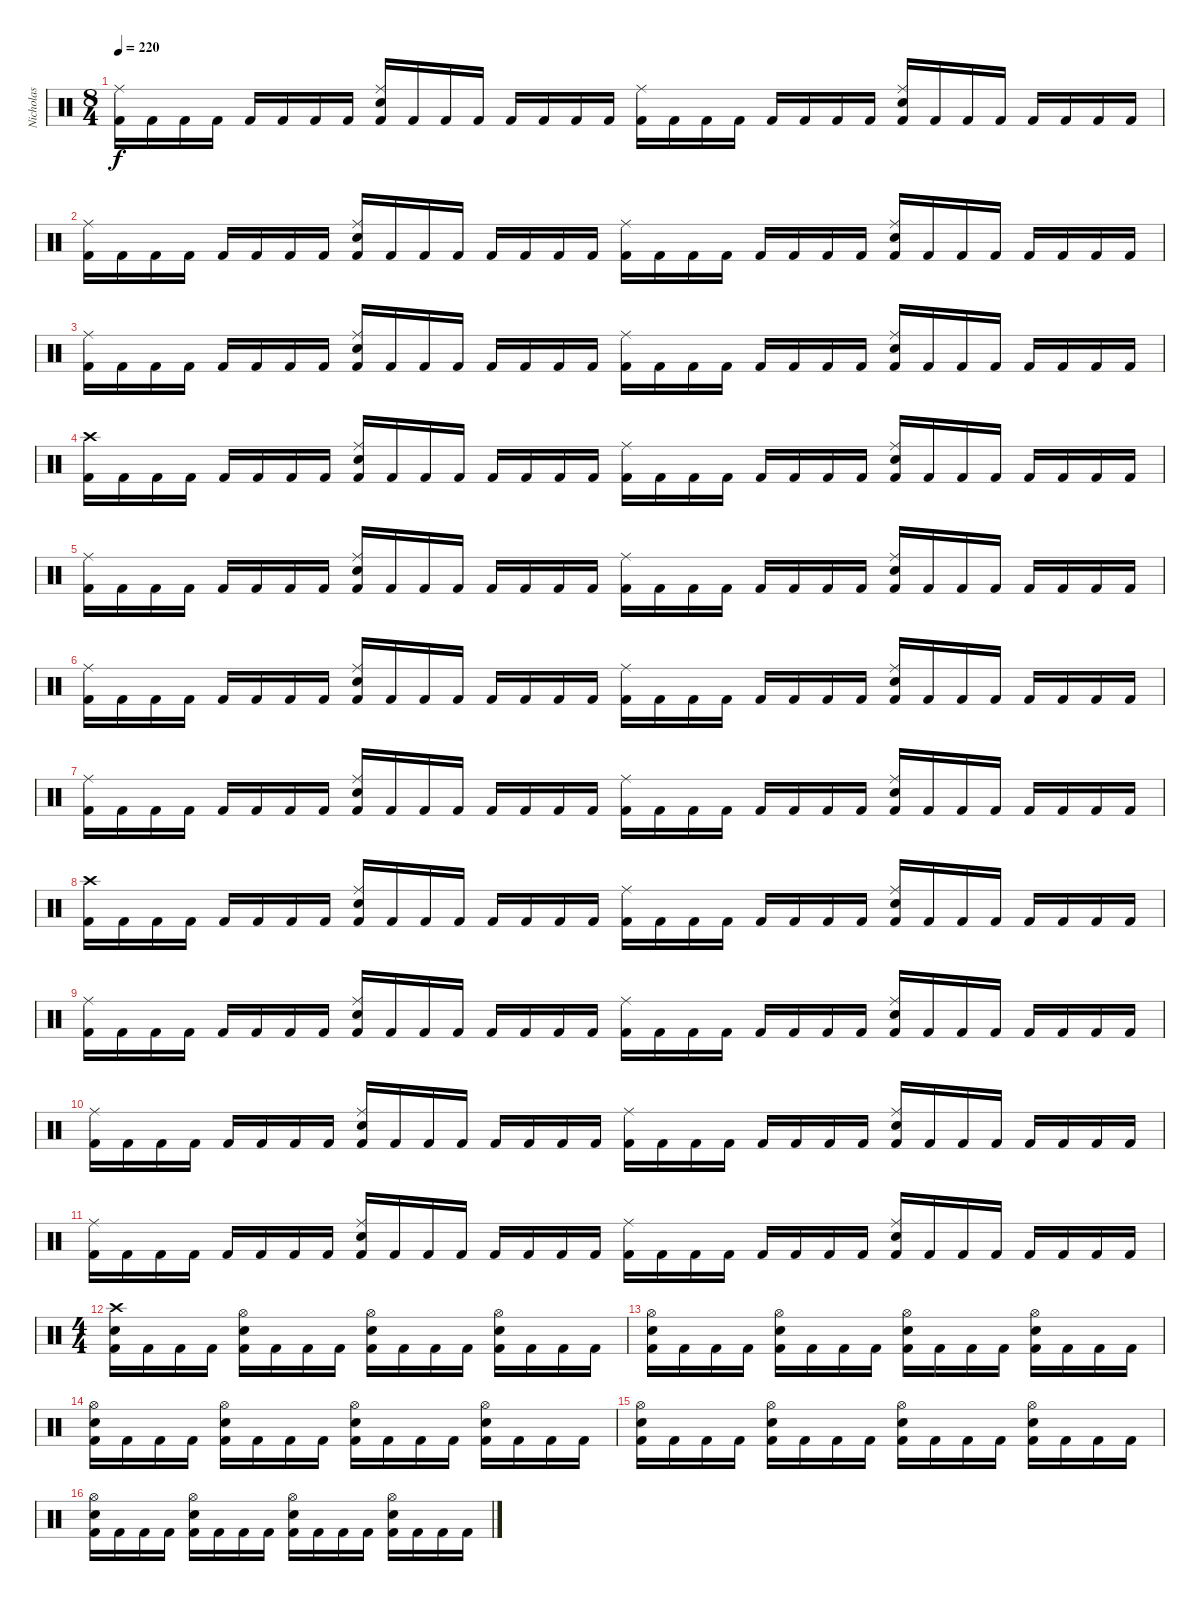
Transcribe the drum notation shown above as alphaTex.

\track ("Nicholas" "Nicholas") {instrument percussion}
\staff {score}
\articulation defaults
\ts (8 4)
\tempo 220
\clef neutral
\ks c
("Kick (hit) 2" "Ride (middle)").16{dy f} "Kick (hit) 2".16 "Kick (hit) 2".16 "Kick (hit) 2".16 "Kick (hit) 2".16 "Kick (hit) 2".16 "Kick (hit) 2".16 "Kick (hit) 2".16 ("Kick (hit) 2" "Snare (hit) 2" "Ride (middle)").16 "Kick (hit) 2".16 "Kick (hit) 2".16 "Kick (hit) 2".16 "Kick (hit) 2".16 "Kick (hit) 2".16 "Kick (hit) 2".16 "Kick (hit) 2".16 ("Kick (hit) 2" "Ride (middle)").16 "Kick (hit) 2".16 "Kick (hit) 2".16 "Kick (hit) 2".16 "Kick (hit) 2".16 "Kick (hit) 2".16 "Kick (hit) 2".16 "Kick (hit) 2".16 ("Kick (hit) 2" "Snare (hit) 2" "Ride (middle)").16 "Kick (hit) 2".16 "Kick (hit) 2".16 "Kick (hit) 2".16 "Kick (hit) 2".16 "Kick (hit) 2".16 "Kick (hit) 2".16 "Kick (hit) 2".16 |
("Kick (hit) 2" "Ride (middle)").16 "Kick (hit) 2".16 "Kick (hit) 2".16 "Kick (hit) 2".16 "Kick (hit) 2".16 "Kick (hit) 2".16 "Kick (hit) 2".16 "Kick (hit) 2".16 ("Kick (hit) 2" "Snare (hit) 2" "Ride (middle)").16 "Kick (hit) 2".16 "Kick (hit) 2".16 "Kick (hit) 2".16 "Kick (hit) 2".16 "Kick (hit) 2".16 "Kick (hit) 2".16 "Kick (hit) 2".16 ("Kick (hit) 2" "Ride (middle)").16 "Kick (hit) 2".16 "Kick (hit) 2".16 "Kick (hit) 2".16 "Kick (hit) 2".16 "Kick (hit) 2".16 "Kick (hit) 2".16 "Kick (hit) 2".16 ("Kick (hit) 2" "Snare (hit) 2" "Ride (middle)").16 "Kick (hit) 2".16 "Kick (hit) 2".16 "Kick (hit) 2".16 "Kick (hit) 2".16 "Kick (hit) 2".16 "Kick (hit) 2".16 "Kick (hit) 2".16 |
("Kick (hit) 2" "Ride (middle)").16 "Kick (hit) 2".16 "Kick (hit) 2".16 "Kick (hit) 2".16 "Kick (hit) 2".16 "Kick (hit) 2".16 "Kick (hit) 2".16 "Kick (hit) 2".16 ("Kick (hit) 2" "Snare (hit) 2" "Ride (middle)").16 "Kick (hit) 2".16 "Kick (hit) 2".16 "Kick (hit) 2".16 "Kick (hit) 2".16 "Kick (hit) 2".16 "Kick (hit) 2".16 "Kick (hit) 2".16 ("Kick (hit) 2" "Ride (middle)").16 "Kick (hit) 2".16 "Kick (hit) 2".16 "Kick (hit) 2".16 "Kick (hit) 2".16 "Kick (hit) 2".16 "Kick (hit) 2".16 "Kick (hit) 2".16 ("Kick (hit) 2" "Snare (hit) 2" "Ride (middle)").16 "Kick (hit) 2".16 "Kick (hit) 2".16 "Kick (hit) 2".16 "Kick (hit) 2".16 "Kick (hit) 2".16 "Kick (hit) 2".16 "Kick (hit) 2".16 |
("Kick (hit) 2" "Crash high (hit)").16 "Kick (hit) 2".16 "Kick (hit) 2".16 "Kick (hit) 2".16 "Kick (hit) 2".16 "Kick (hit) 2".16 "Kick (hit) 2".16 "Kick (hit) 2".16 ("Kick (hit) 2" "Snare (hit) 2" "Ride (middle)").16 "Kick (hit) 2".16 "Kick (hit) 2".16 "Kick (hit) 2".16 "Kick (hit) 2".16 "Kick (hit) 2".16 "Kick (hit) 2".16 "Kick (hit) 2".16 ("Kick (hit) 2" "Ride (middle)").16 "Kick (hit) 2".16 "Kick (hit) 2".16 "Kick (hit) 2".16 "Kick (hit) 2".16 "Kick (hit) 2".16 "Kick (hit) 2".16 "Kick (hit) 2".16 ("Kick (hit) 2" "Snare (hit) 2" "Ride (middle)").16 "Kick (hit) 2".16 "Kick (hit) 2".16 "Kick (hit) 2".16 "Kick (hit) 2".16 "Kick (hit) 2".16 "Kick (hit) 2".16 "Kick (hit) 2".16 |
("Kick (hit) 2" "Ride (middle)").16 "Kick (hit) 2".16 "Kick (hit) 2".16 "Kick (hit) 2".16 "Kick (hit) 2".16 "Kick (hit) 2".16 "Kick (hit) 2".16 "Kick (hit) 2".16 ("Kick (hit) 2" "Snare (hit) 2" "Ride (middle)").16 "Kick (hit) 2".16 "Kick (hit) 2".16 "Kick (hit) 2".16 "Kick (hit) 2".16 "Kick (hit) 2".16 "Kick (hit) 2".16 "Kick (hit) 2".16 ("Kick (hit) 2" "Ride (middle)").16 "Kick (hit) 2".16 "Kick (hit) 2".16 "Kick (hit) 2".16 "Kick (hit) 2".16 "Kick (hit) 2".16 "Kick (hit) 2".16 "Kick (hit) 2".16 ("Kick (hit) 2" "Snare (hit) 2" "Ride (middle)").16 "Kick (hit) 2".16 "Kick (hit) 2".16 "Kick (hit) 2".16 "Kick (hit) 2".16 "Kick (hit) 2".16 "Kick (hit) 2".16 "Kick (hit) 2".16 |
("Kick (hit) 2" "Ride (middle)").16 "Kick (hit) 2".16 "Kick (hit) 2".16 "Kick (hit) 2".16 "Kick (hit) 2".16 "Kick (hit) 2".16 "Kick (hit) 2".16 "Kick (hit) 2".16 ("Kick (hit) 2" "Snare (hit) 2" "Ride (middle)").16 "Kick (hit) 2".16 "Kick (hit) 2".16 "Kick (hit) 2".16 "Kick (hit) 2".16 "Kick (hit) 2".16 "Kick (hit) 2".16 "Kick (hit) 2".16 ("Kick (hit) 2" "Ride (middle)").16 "Kick (hit) 2".16 "Kick (hit) 2".16 "Kick (hit) 2".16 "Kick (hit) 2".16 "Kick (hit) 2".16 "Kick (hit) 2".16 "Kick (hit) 2".16 ("Kick (hit) 2" "Snare (hit) 2" "Ride (middle)").16 "Kick (hit) 2".16 "Kick (hit) 2".16 "Kick (hit) 2".16 "Kick (hit) 2".16 "Kick (hit) 2".16 "Kick (hit) 2".16 "Kick (hit) 2".16 |
("Kick (hit) 2" "Ride (middle)").16 "Kick (hit) 2".16 "Kick (hit) 2".16 "Kick (hit) 2".16 "Kick (hit) 2".16 "Kick (hit) 2".16 "Kick (hit) 2".16 "Kick (hit) 2".16 ("Kick (hit) 2" "Snare (hit) 2" "Ride (middle)").16 "Kick (hit) 2".16 "Kick (hit) 2".16 "Kick (hit) 2".16 "Kick (hit) 2".16 "Kick (hit) 2".16 "Kick (hit) 2".16 "Kick (hit) 2".16 ("Kick (hit) 2" "Ride (middle)").16 "Kick (hit) 2".16 "Kick (hit) 2".16 "Kick (hit) 2".16 "Kick (hit) 2".16 "Kick (hit) 2".16 "Kick (hit) 2".16 "Kick (hit) 2".16 ("Kick (hit) 2" "Snare (hit) 2" "Ride (middle)").16 "Kick (hit) 2".16 "Kick (hit) 2".16 "Kick (hit) 2".16 "Kick (hit) 2".16 "Kick (hit) 2".16 "Kick (hit) 2".16 "Kick (hit) 2".16 |
("Kick (hit) 2" "Crash high (hit)").16 "Kick (hit) 2".16 "Kick (hit) 2".16 "Kick (hit) 2".16 "Kick (hit) 2".16 "Kick (hit) 2".16 "Kick (hit) 2".16 "Kick (hit) 2".16 ("Kick (hit) 2" "Snare (hit) 2" "Ride (middle)").16 "Kick (hit) 2".16 "Kick (hit) 2".16 "Kick (hit) 2".16 "Kick (hit) 2".16 "Kick (hit) 2".16 "Kick (hit) 2".16 "Kick (hit) 2".16 ("Kick (hit) 2" "Ride (middle)").16 "Kick (hit) 2".16 "Kick (hit) 2".16 "Kick (hit) 2".16 "Kick (hit) 2".16 "Kick (hit) 2".16 "Kick (hit) 2".16 "Kick (hit) 2".16 ("Kick (hit) 2" "Snare (hit) 2" "Ride (middle)").16 "Kick (hit) 2".16 "Kick (hit) 2".16 "Kick (hit) 2".16 "Kick (hit) 2".16 "Kick (hit) 2".16 "Kick (hit) 2".16 "Kick (hit) 2".16 |
("Kick (hit) 2" "Ride (middle)").16 "Kick (hit) 2".16 "Kick (hit) 2".16 "Kick (hit) 2".16 "Kick (hit) 2".16 "Kick (hit) 2".16 "Kick (hit) 2".16 "Kick (hit) 2".16 ("Kick (hit) 2" "Snare (hit) 2" "Ride (middle)").16 "Kick (hit) 2".16 "Kick (hit) 2".16 "Kick (hit) 2".16 "Kick (hit) 2".16 "Kick (hit) 2".16 "Kick (hit) 2".16 "Kick (hit) 2".16 ("Kick (hit) 2" "Ride (middle)").16 "Kick (hit) 2".16 "Kick (hit) 2".16 "Kick (hit) 2".16 "Kick (hit) 2".16 "Kick (hit) 2".16 "Kick (hit) 2".16 "Kick (hit) 2".16 ("Kick (hit) 2" "Snare (hit) 2" "Ride (middle)").16 "Kick (hit) 2".16 "Kick (hit) 2".16 "Kick (hit) 2".16 "Kick (hit) 2".16 "Kick (hit) 2".16 "Kick (hit) 2".16 "Kick (hit) 2".16 |
("Kick (hit) 2" "Ride (middle)").16 "Kick (hit) 2".16 "Kick (hit) 2".16 "Kick (hit) 2".16 "Kick (hit) 2".16 "Kick (hit) 2".16 "Kick (hit) 2".16 "Kick (hit) 2".16 ("Kick (hit) 2" "Snare (hit) 2" "Ride (middle)").16 "Kick (hit) 2".16 "Kick (hit) 2".16 "Kick (hit) 2".16 "Kick (hit) 2".16 "Kick (hit) 2".16 "Kick (hit) 2".16 "Kick (hit) 2".16 ("Kick (hit) 2" "Ride (middle)").16 "Kick (hit) 2".16 "Kick (hit) 2".16 "Kick (hit) 2".16 "Kick (hit) 2".16 "Kick (hit) 2".16 "Kick (hit) 2".16 "Kick (hit) 2".16 ("Kick (hit) 2" "Snare (hit) 2" "Ride (middle)").16 "Kick (hit) 2".16 "Kick (hit) 2".16 "Kick (hit) 2".16 "Kick (hit) 2".16 "Kick (hit) 2".16 "Kick (hit) 2".16 "Kick (hit) 2".16 |
("Kick (hit) 2" "Ride (middle)").16 "Kick (hit) 2".16 "Kick (hit) 2".16 "Kick (hit) 2".16 "Kick (hit) 2".16 "Kick (hit) 2".16 "Kick (hit) 2".16 "Kick (hit) 2".16 ("Kick (hit) 2" "Snare (hit) 2" "Ride (middle)").16 "Kick (hit) 2".16 "Kick (hit) 2".16 "Kick (hit) 2".16 "Kick (hit) 2".16 "Kick (hit) 2".16 "Kick (hit) 2".16 "Kick (hit) 2".16 ("Kick (hit) 2" "Ride (middle)").16 "Kick (hit) 2".16 "Kick (hit) 2".16 "Kick (hit) 2".16 "Kick (hit) 2".16 "Kick (hit) 2".16 "Kick (hit) 2".16 "Kick (hit) 2".16 ("Kick (hit) 2" "Snare (hit) 2" "Ride (middle)").16 "Kick (hit) 2".16 "Kick (hit) 2".16 "Kick (hit) 2".16 "Kick (hit) 2".16 "Kick (hit) 2".16 "Kick (hit) 2".16 "Kick (hit) 2".16 |
\ts (4 4)
("Kick (hit) 2" "Snare (hit) 2" "Crash high (hit)").16 "Kick (hit) 2".16 "Kick (hit) 2".16 "Kick (hit) 2".16 ("Kick (hit) 2" "Snare (hit) 2" "Hi-Hat (open)").16 "Kick (hit) 2".16 "Kick (hit) 2".16 "Kick (hit) 2".16 ("Kick (hit) 2" "Snare (hit) 2" "Hi-Hat (open)").16 "Kick (hit) 2".16 "Kick (hit) 2".16 "Kick (hit) 2".16 ("Kick (hit) 2" "Snare (hit) 2" "Hi-Hat (open)").16 "Kick (hit) 2".16 "Kick (hit) 2".16 "Kick (hit) 2".16 |
("Kick (hit) 2" "Snare (hit) 2" "Hi-Hat (open)").16 "Kick (hit) 2".16 "Kick (hit) 2".16 "Kick (hit) 2".16 ("Kick (hit) 2" "Snare (hit) 2" "Hi-Hat (open)").16 "Kick (hit) 2".16 "Kick (hit) 2".16 "Kick (hit) 2".16 ("Kick (hit) 2" "Snare (hit) 2" "Hi-Hat (open)").16 "Kick (hit) 2".16 "Kick (hit) 2".16 "Kick (hit) 2".16 ("Kick (hit) 2" "Snare (hit) 2" "Hi-Hat (open)").16 "Kick (hit) 2".16 "Kick (hit) 2".16 "Kick (hit) 2".16 |
("Kick (hit) 2" "Snare (hit) 2" "Hi-Hat (open)").16 "Kick (hit) 2".16 "Kick (hit) 2".16 "Kick (hit) 2".16 ("Kick (hit) 2" "Snare (hit) 2" "Hi-Hat (open)").16 "Kick (hit) 2".16 "Kick (hit) 2".16 "Kick (hit) 2".16 ("Kick (hit) 2" "Snare (hit) 2" "Hi-Hat (open)").16 "Kick (hit) 2".16 "Kick (hit) 2".16 "Kick (hit) 2".16 ("Kick (hit) 2" "Snare (hit) 2" "Hi-Hat (open)").16 "Kick (hit) 2".16 "Kick (hit) 2".16 "Kick (hit) 2".16 |
("Kick (hit) 2" "Snare (hit) 2" "Hi-Hat (open)").16 "Kick (hit) 2".16 "Kick (hit) 2".16 "Kick (hit) 2".16 ("Kick (hit) 2" "Snare (hit) 2" "Hi-Hat (open)").16 "Kick (hit) 2".16 "Kick (hit) 2".16 "Kick (hit) 2".16 ("Kick (hit) 2" "Snare (hit) 2" "Hi-Hat (open)").16 "Kick (hit) 2".16 "Kick (hit) 2".16 "Kick (hit) 2".16 ("Kick (hit) 2" "Snare (hit) 2" "Hi-Hat (open)").16 "Kick (hit) 2".16 "Kick (hit) 2".16 "Kick (hit) 2".16 |
("Kick (hit) 2" "Snare (hit) 2" "Hi-Hat (open)").16 "Kick (hit) 2".16 "Kick (hit) 2".16 "Kick (hit) 2".16 ("Kick (hit) 2" "Snare (hit) 2" "Hi-Hat (open)").16 "Kick (hit) 2".16 "Kick (hit) 2".16 "Kick (hit) 2".16 ("Kick (hit) 2" "Snare (hit) 2" "Hi-Hat (open)").16 "Kick (hit) 2".16 "Kick (hit) 2".16 "Kick (hit) 2".16 ("Kick (hit) 2" "Snare (hit) 2" "Hi-Hat (open)").16 "Kick (hit) 2".16 "Kick (hit) 2".16 "Kick (hit) 2".16
